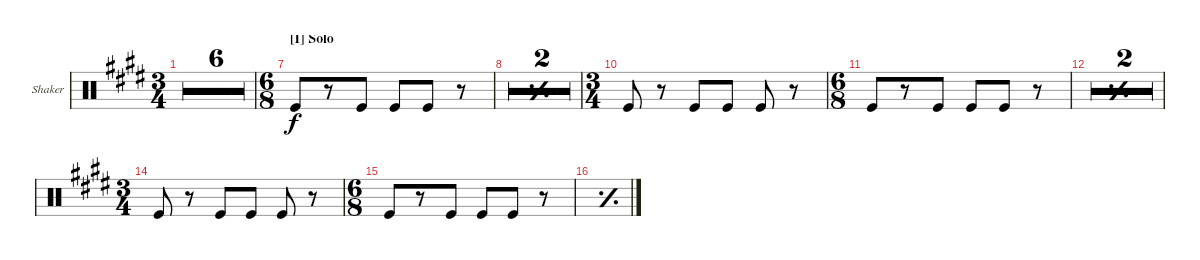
\defaultSystemsLayout 4
\bracketExtendMode groupsimilarinstruments
\firstSystemTrackNameOrientation horizontal
\otherSystemsTrackNameOrientation horizontal
\track ("Shaker" "Shaker") {multiBarRest instrument percussion}
\staff {score}
\articulation defaults
\ts (3 4)
\tempo
165.176
\accidentals auto
\clef neutral
\ottava regular
\simile none
\ks e
r.2{d dy f} |
r.2{d} |
r.2{d} |
r.2{d} |
r.2{d} |
r.2{d} |
\ts (6 8)
\section ("I" "Solo")
"Kick (hit)".8 r.8 "Kick (hit)".8 "Kick (hit)".8 "Kick (hit)".8 r.8 |
\simile simple
|
|
\ts (3 4)
\simile none "Kick (hit)".8
r.8 "Kick (hit)".8 "Kick (hit)".8 "Kick (hit)".8 r.8 |
\ts (6 8)
"Kick (hit)".8 r.8 "Kick (hit)".8 "Kick (hit)".8 "Kick (hit)".8 r.8 |
\simile simple
|
|
\ts (3 4)
\simile none "Kick (hit)".8
r.8 "Kick (hit)".8 "Kick (hit)".8 "Kick (hit)".8 r.8 |
\ts (6 8)
"Kick (hit)".8 r.8 "Kick (hit)".8 "Kick (hit)".8 "Kick (hit)".8 r.8 |
\simile simple
